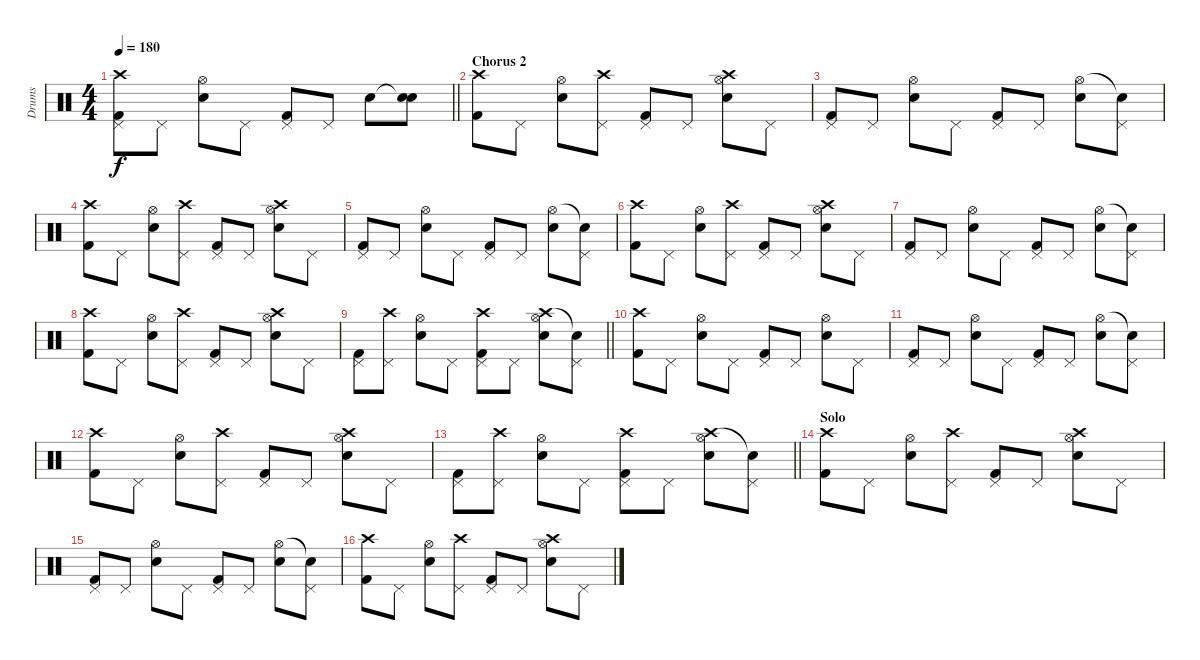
\track ("Drums" "Drums") {instrument percussion}
\staff {score}
\articulation defaults
\ts (4 4)
\tempo 180
\clef neutral
\barLineRight lightlight
\ks c
("Crash high (hit)" "Pedal Hi-Hat (hit)" "Kick (hit) 2").8{dy f} "Pedal Hi-Hat (hit)".8 ("Hi-Hat (open)" "Snare (hit) 2").8 "Pedal Hi-Hat (hit)".8 ("Pedal Hi-Hat (hit)" "Kick (hit) 2").8 "Pedal Hi-Hat (hit)".8 "Snare (hit) 2".8 ("Snare (hit)"{t} "Snare (hit) 2").8 |
\section ("" "Chorus 2")
("Crash high (hit)" "Kick (hit) 2").8 "Pedal Hi-Hat (hit)".8 ("Hi-Hat (open)" "Snare (hit) 2").8 ("Crash high (hit)" "Pedal Hi-Hat (hit)").8 ("Pedal Hi-Hat (hit)" "Kick (hit) 2").8 "Pedal Hi-Hat (hit)".8 ("Crash high (hit)" "Hi-Hat (open)" "Snare (hit) 2").8 "Pedal Hi-Hat (hit)".8 |
("Pedal Hi-Hat (hit)" "Kick (hit) 2").8 "Pedal Hi-Hat (hit)".8 ("Hi-Hat (open)" "Snare (hit) 2").8 "Pedal Hi-Hat (hit)".8 ("Pedal Hi-Hat (hit)" "Kick (hit) 2").8 "Pedal Hi-Hat (hit)".8 ("Hi-Hat (open)" "Snare (hit) 2").8 ("Snare (hit)"{t} "Pedal Hi-Hat (hit)").8 |
("Crash high (hit)" "Kick (hit) 2").8 "Pedal Hi-Hat (hit)".8 ("Hi-Hat (open)" "Snare (hit) 2").8 ("Crash high (hit)" "Pedal Hi-Hat (hit)").8 ("Pedal Hi-Hat (hit)" "Kick (hit) 2").8 "Pedal Hi-Hat (hit)".8 ("Crash high (hit)" "Hi-Hat (open)" "Snare (hit) 2").8 "Pedal Hi-Hat (hit)".8 |
("Pedal Hi-Hat (hit)" "Kick (hit) 2").8 "Pedal Hi-Hat (hit)".8 ("Hi-Hat (open)" "Snare (hit) 2").8 "Pedal Hi-Hat (hit)".8 ("Pedal Hi-Hat (hit)" "Kick (hit) 2").8 "Pedal Hi-Hat (hit)".8 ("Hi-Hat (open)" "Snare (hit) 2").8 ("Snare (hit)"{t} "Pedal Hi-Hat (hit)").8 |
("Crash high (hit)" "Kick (hit) 2").8 "Pedal Hi-Hat (hit)".8 ("Hi-Hat (open)" "Snare (hit) 2").8 ("Crash high (hit)" "Pedal Hi-Hat (hit)").8 ("Pedal Hi-Hat (hit)" "Kick (hit) 2").8 "Pedal Hi-Hat (hit)".8 ("Crash high (hit)" "Hi-Hat (open)" "Snare (hit) 2").8 "Pedal Hi-Hat (hit)".8 |
("Pedal Hi-Hat (hit)" "Kick (hit) 2").8 "Pedal Hi-Hat (hit)".8 ("Hi-Hat (open)" "Snare (hit) 2").8 "Pedal Hi-Hat (hit)".8 ("Pedal Hi-Hat (hit)" "Kick (hit) 2").8 "Pedal Hi-Hat (hit)".8 ("Hi-Hat (open)" "Snare (hit) 2").8 ("Snare (hit)"{t} "Pedal Hi-Hat (hit)").8 |
("Crash high (hit)" "Kick (hit) 2").8 "Pedal Hi-Hat (hit)".8 ("Hi-Hat (open)" "Snare (hit) 2").8 ("Crash high (hit)" "Pedal Hi-Hat (hit)").8 ("Pedal Hi-Hat (hit)" "Kick (hit) 2").8 "Pedal Hi-Hat (hit)".8 ("Crash high (hit)" "Hi-Hat (open)" "Snare (hit) 2").8 "Pedal Hi-Hat (hit)".8 |
\barLineRight lightlight
("Pedal Hi-Hat (hit)" "Kick (hit) 2").8 ("Crash high (hit)" "Pedal Hi-Hat (hit)").8 ("Hi-Hat (open)" "Snare (hit) 2").8 "Pedal Hi-Hat (hit)".8 ("Crash high (hit)" "Pedal Hi-Hat (hit)" "Kick (hit) 2").8 "Pedal Hi-Hat (hit)".8 ("Crash high (hit)" "Hi-Hat (open)" "Snare (hit) 2").8 ("Snare (hit)"{t} "Pedal Hi-Hat (hit)").8 |
("Crash high (hit)" "Kick (hit) 2").8 "Pedal Hi-Hat (hit)".8 ("Hi-Hat (open)" "Snare (hit) 2").8 "Pedal Hi-Hat (hit)".8 ("Pedal Hi-Hat (hit)" "Kick (hit) 2").8 "Pedal Hi-Hat (hit)".8 ("Hi-Hat (open)" "Snare (hit) 2").8 "Pedal Hi-Hat (hit)".8 |
("Pedal Hi-Hat (hit)" "Kick (hit) 2").8 "Pedal Hi-Hat (hit)".8 ("Hi-Hat (open)" "Snare (hit) 2").8 "Pedal Hi-Hat (hit)".8 ("Pedal Hi-Hat (hit)" "Kick (hit) 2").8 "Pedal Hi-Hat (hit)".8 ("Hi-Hat (open)" "Snare (hit) 2").8 ("Snare (hit)"{t} "Pedal Hi-Hat (hit)").8 |
("Crash high (hit)" "Kick (hit) 2").8 "Pedal Hi-Hat (hit)".8 ("Hi-Hat (open)" "Snare (hit) 2").8 ("Crash high (hit)" "Pedal Hi-Hat (hit)").8 ("Pedal Hi-Hat (hit)" "Kick (hit) 2").8 "Pedal Hi-Hat (hit)".8 ("Crash high (hit)" "Hi-Hat (open)" "Snare (hit) 2").8 "Pedal Hi-Hat (hit)".8 |
\barLineRight lightlight
("Pedal Hi-Hat (hit)" "Kick (hit) 2").8 ("Crash high (hit)" "Pedal Hi-Hat (hit)").8 ("Hi-Hat (open)" "Snare (hit) 2").8 "Pedal Hi-Hat (hit)".8 ("Crash high (hit)" "Pedal Hi-Hat (hit)" "Kick (hit) 2").8 "Pedal Hi-Hat (hit)".8 ("Crash high (hit)" "Hi-Hat (open)" "Snare (hit) 2").8 ("Snare (hit)"{t} "Pedal Hi-Hat (hit)").8 |
\section ("" "Solo")
("Crash high (hit)" "Kick (hit) 2").8 "Pedal Hi-Hat (hit)".8 ("Hi-Hat (open)" "Snare (hit) 2").8 ("Crash high (hit)" "Pedal Hi-Hat (hit)").8 ("Pedal Hi-Hat (hit)" "Kick (hit) 2").8 "Pedal Hi-Hat (hit)".8 ("Crash high (hit)" "Hi-Hat (open)" "Snare (hit) 2").8 "Pedal Hi-Hat (hit)".8 |
("Pedal Hi-Hat (hit)" "Kick (hit) 2").8 "Pedal Hi-Hat (hit)".8 ("Hi-Hat (open)" "Snare (hit) 2").8 "Pedal Hi-Hat (hit)".8 ("Pedal Hi-Hat (hit)" "Kick (hit) 2").8 "Pedal Hi-Hat (hit)".8 ("Hi-Hat (open)" "Snare (hit) 2").8 ("Snare (hit)"{t} "Pedal Hi-Hat (hit)").8 |
("Crash high (hit)" "Kick (hit) 2").8 "Pedal Hi-Hat (hit)".8 ("Hi-Hat (open)" "Snare (hit) 2").8 ("Crash high (hit)" "Pedal Hi-Hat (hit)").8 ("Pedal Hi-Hat (hit)" "Kick (hit) 2").8 "Pedal Hi-Hat (hit)".8 ("Crash high (hit)" "Hi-Hat (open)" "Snare (hit) 2").8 "Pedal Hi-Hat (hit)".8
